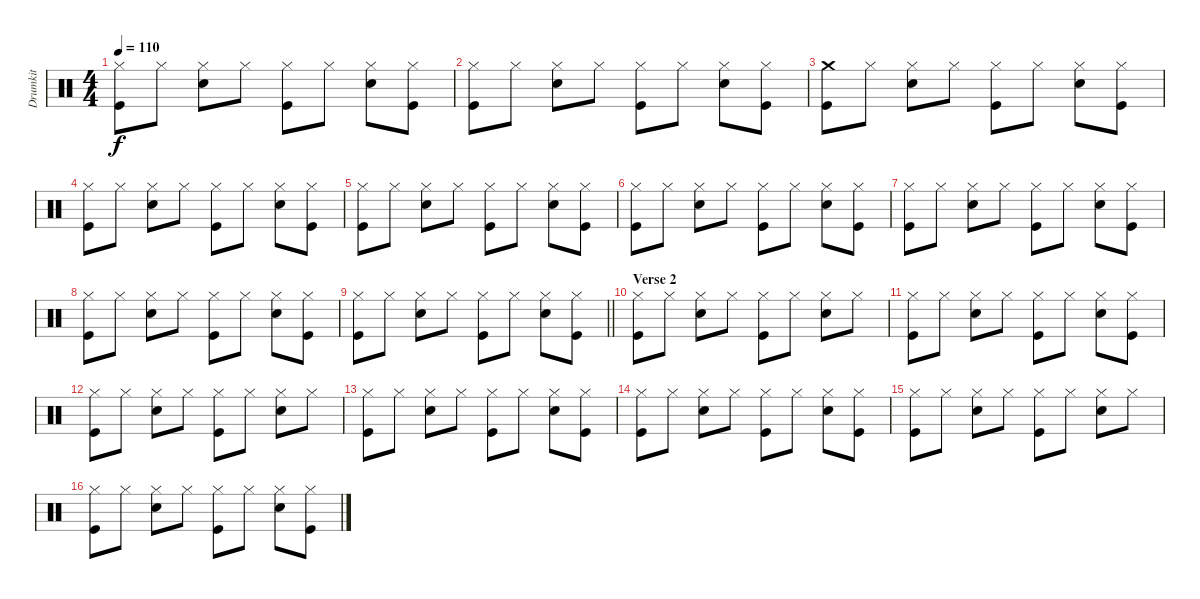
\track ("Drumkit" "Drumkit") {instrument percussion}
\staff {score}
\articulation defaults
\ts (4 4)
\tempo 110
\clef neutral
\ks c
("Hi-Hat (closed)" "Kick (hit)").8{dy f} "Hi-Hat (closed)".8 ("Hi-Hat (closed)" "Snare (hit) 2").8 "Hi-Hat (closed)".8 ("Hi-Hat (closed)" "Kick (hit)").8 "Hi-Hat (closed)".8 ("Hi-Hat (closed)" "Snare (hit) 2").8 ("Hi-Hat (closed)" "Kick (hit)").8 |
("Hi-Hat (closed)" "Kick (hit)").8 "Hi-Hat (closed)".8 ("Hi-Hat (closed)" "Snare (hit) 2").8 "Hi-Hat (closed)".8 ("Hi-Hat (closed)" "Kick (hit)").8 "Hi-Hat (closed)".8 ("Hi-Hat (closed)" "Snare (hit) 2").8 ("Hi-Hat (closed)" "Kick (hit)").8 |
("Crash medium (hit)" "Kick (hit)").8 "Hi-Hat (closed)".8 ("Hi-Hat (closed)" "Snare (hit) 2").8 "Hi-Hat (closed)".8 ("Hi-Hat (closed)" "Kick (hit)").8 "Hi-Hat (closed)".8 ("Hi-Hat (closed)" "Snare (hit) 2").8 ("Hi-Hat (closed)" "Kick (hit)").8 |
("Hi-Hat (closed)" "Kick (hit)").8 "Hi-Hat (closed)".8 ("Hi-Hat (closed)" "Snare (hit) 2").8 "Hi-Hat (closed)".8 ("Hi-Hat (closed)" "Kick (hit)").8 "Hi-Hat (closed)".8 ("Hi-Hat (closed)" "Snare (hit) 2").8 ("Hi-Hat (closed)" "Kick (hit)").8 |
("Hi-Hat (closed)" "Kick (hit)").8 "Hi-Hat (closed)".8 ("Hi-Hat (closed)" "Snare (hit) 2").8 "Hi-Hat (closed)".8 ("Hi-Hat (closed)" "Kick (hit)").8 "Hi-Hat (closed)".8 ("Hi-Hat (closed)" "Snare (hit) 2").8 ("Hi-Hat (closed)" "Kick (hit)").8 |
("Hi-Hat (closed)" "Kick (hit)").8 "Hi-Hat (closed)".8 ("Hi-Hat (closed)" "Snare (hit) 2").8 "Hi-Hat (closed)".8 ("Hi-Hat (closed)" "Kick (hit)").8 "Hi-Hat (closed)".8 ("Hi-Hat (closed)" "Snare (hit) 2").8 ("Hi-Hat (closed)" "Kick (hit)").8 |
("Hi-Hat (closed)" "Kick (hit)").8 "Hi-Hat (closed)".8 ("Hi-Hat (closed)" "Snare (hit) 2").8 "Hi-Hat (closed)".8 ("Hi-Hat (closed)" "Kick (hit)").8 "Hi-Hat (closed)".8 ("Hi-Hat (closed)" "Snare (hit) 2").8 ("Hi-Hat (closed)" "Kick (hit)").8 |
("Hi-Hat (closed)" "Kick (hit)").8 "Hi-Hat (closed)".8 ("Hi-Hat (closed)" "Snare (hit) 2").8 "Hi-Hat (closed)".8 ("Hi-Hat (closed)" "Kick (hit)").8 "Hi-Hat (closed)".8 ("Hi-Hat (closed)" "Snare (hit) 2").8 ("Hi-Hat (closed)" "Kick (hit)").8 |
\barLineRight lightlight
("Hi-Hat (closed)" "Kick (hit)").8 "Hi-Hat (closed)".8 ("Hi-Hat (closed)" "Snare (hit) 2").8 "Hi-Hat (closed)".8 ("Hi-Hat (closed)" "Kick (hit)").8 "Hi-Hat (closed)".8 ("Hi-Hat (closed)" "Snare (hit) 2").8 ("Hi-Hat (closed)" "Kick (hit)").8 |
\section ("" "Verse 2")
("Hi-Hat (closed)" "Kick (hit)").8 "Hi-Hat (closed)".8 ("Hi-Hat (closed)" "Snare (hit) 2").8 "Hi-Hat (closed)".8 ("Hi-Hat (closed)" "Kick (hit)").8 "Hi-Hat (closed)".8 ("Hi-Hat (closed)" "Snare (hit) 2").8 "Hi-Hat (closed)".8 |
("Hi-Hat (closed)" "Kick (hit)").8 "Hi-Hat (closed)".8 ("Hi-Hat (closed)" "Snare (hit) 2").8 "Hi-Hat (closed)".8 ("Hi-Hat (closed)" "Kick (hit)").8 "Hi-Hat (closed)".8 ("Hi-Hat (closed)" "Snare (hit) 2").8 ("Hi-Hat (closed)" "Kick (hit)").8 |
("Hi-Hat (closed)" "Kick (hit)").8 "Hi-Hat (closed)".8 ("Hi-Hat (closed)" "Snare (hit) 2").8 "Hi-Hat (closed)".8 ("Hi-Hat (closed)" "Kick (hit)").8 "Hi-Hat (closed)".8 ("Hi-Hat (closed)" "Snare (hit) 2").8 "Hi-Hat (closed)".8 |
("Hi-Hat (closed)" "Kick (hit)").8 "Hi-Hat (closed)".8 ("Hi-Hat (closed)" "Snare (hit) 2").8 "Hi-Hat (closed)".8 ("Hi-Hat (closed)" "Kick (hit)").8 "Hi-Hat (closed)".8 ("Hi-Hat (closed)" "Snare (hit) 2").8 ("Hi-Hat (closed)" "Kick (hit)").8 |
("Hi-Hat (closed)" "Kick (hit)").8 "Hi-Hat (closed)".8 ("Hi-Hat (closed)" "Snare (hit) 2").8 "Hi-Hat (closed)".8 ("Hi-Hat (closed)" "Kick (hit)").8 "Hi-Hat (closed)".8 ("Hi-Hat (closed)" "Snare (hit) 2").8 ("Hi-Hat (closed)" "Kick (hit)").8 |
("Hi-Hat (closed)" "Kick (hit)").8 "Hi-Hat (closed)".8 ("Hi-Hat (closed)" "Snare (hit) 2").8 "Hi-Hat (closed)".8 ("Hi-Hat (closed)" "Kick (hit)").8 "Hi-Hat (closed)".8 ("Hi-Hat (closed)" "Snare (hit) 2").8 "Hi-Hat (closed)".8 |
("Hi-Hat (closed)" "Kick (hit)").8 "Hi-Hat (closed)".8 ("Hi-Hat (closed)" "Snare (hit) 2").8 "Hi-Hat (closed)".8 ("Hi-Hat (closed)" "Kick (hit)").8 "Hi-Hat (closed)".8 ("Hi-Hat (closed)" "Snare (hit) 2").8 ("Hi-Hat (closed)" "Kick (hit)").8
